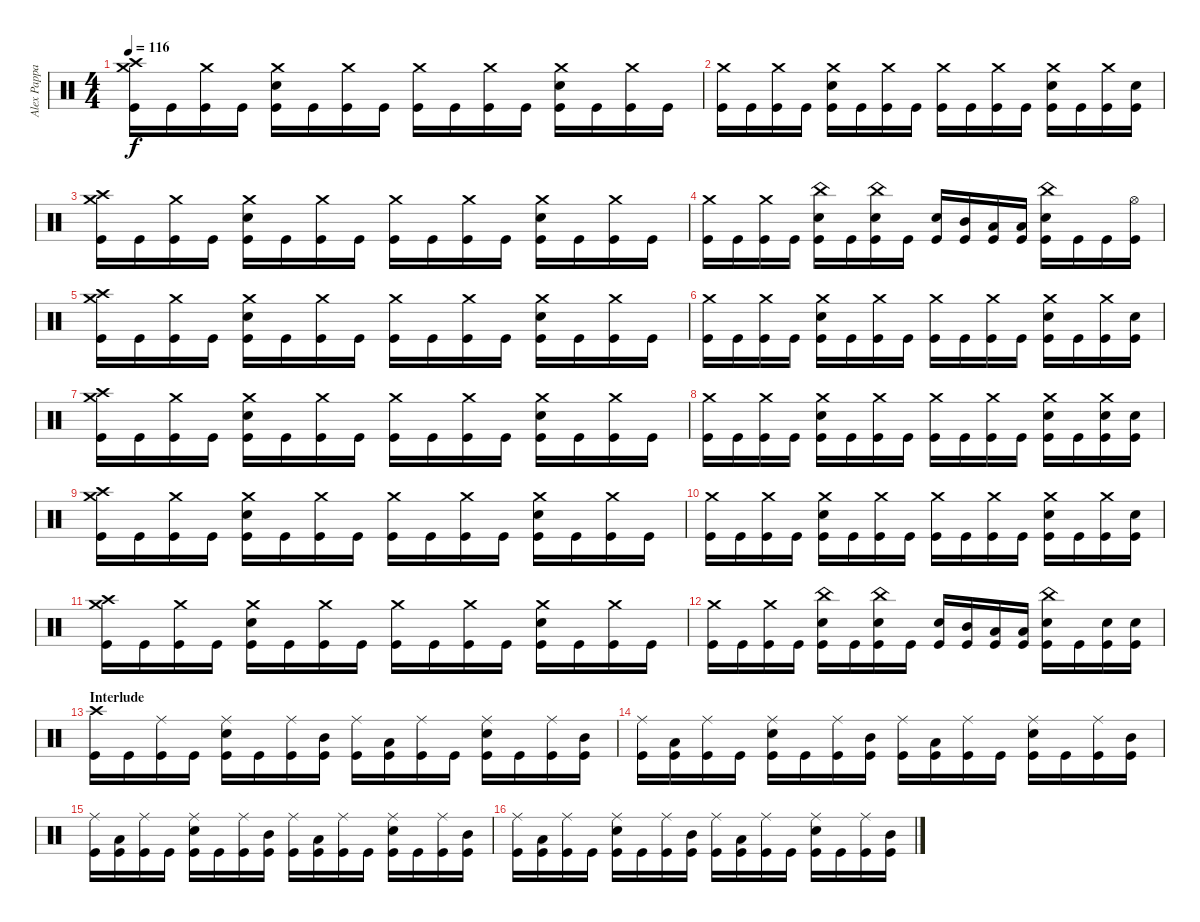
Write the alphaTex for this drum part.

\track ("Alex Pappas" "Alex Pappa") {instrument percussion}
\staff {score}
\articulation defaults
\ts (4 4)
\tempo 116
\clef neutral
\ks c
("Crash medium (hit)" "Crash high (hit)" "Kick (hit)").16{dy f} "Kick (hit)".16 ("Crash medium (hit)" "Kick (hit)").16 "Kick (hit)".16 ("Crash medium (hit)" "Electric Snare (hit)" "Kick (hit)").16 "Kick (hit)".16 ("Crash medium (hit)" "Kick (hit)").16 "Kick (hit)".16 ("Crash medium (hit)" "Kick (hit)").16 "Kick (hit)".16 ("Crash medium (hit)" "Kick (hit)").16 "Kick (hit)".16 ("Crash medium (hit)" "Electric Snare (hit)" "Kick (hit)").16 "Kick (hit)".16 ("Crash medium (hit)" "Kick (hit)").16 "Kick (hit)".16 |
("Crash medium (hit)" "Kick (hit)").16 "Kick (hit)".16 ("Crash medium (hit)" "Kick (hit)").16 "Kick (hit)".16 ("Crash medium (hit)" "Electric Snare (hit)" "Kick (hit)").16 "Kick (hit)".16 ("Crash medium (hit)" "Kick (hit)").16 "Kick (hit)".16 ("Crash medium (hit)" "Kick (hit)").16 "Kick (hit)".16 ("Crash medium (hit)" "Kick (hit)").16 "Kick (hit)".16 ("Crash medium (hit)" "Electric Snare (hit)" "Kick (hit)").16 "Kick (hit)".16 ("Crash medium (hit)" "Kick (hit)").16 ("Electric Snare (hit)" "Kick (hit)").16 |
("Crash medium (hit)" "Crash high (hit)" "Kick (hit)").16 "Kick (hit)".16 ("Crash medium (hit)" "Kick (hit)").16 "Kick (hit)".16 ("Crash medium (hit)" "Electric Snare (hit)" "Kick (hit)").16 "Kick (hit)".16 ("Crash medium (hit)" "Kick (hit)").16 "Kick (hit)".16 ("Crash medium (hit)" "Kick (hit)").16 "Kick (hit)".16 ("Crash medium (hit)" "Kick (hit)").16 "Kick (hit)".16 ("Crash medium (hit)" "Electric Snare (hit)" "Kick (hit)").16 "Kick (hit)".16 ("Crash medium (hit)" "Kick (hit)").16 "Kick (hit)".16 |
("Crash medium (hit)" "Kick (hit)").16 "Kick (hit)".16 ("Crash medium (hit)" "Kick (hit)").16 "Kick (hit)".16 ("China (hit)" "Electric Snare (hit)" "Kick (hit)").16 "Kick (hit)".16 ("China (hit)" "Electric Snare (hit)" "Kick (hit)").16 "Kick (hit)".16 ("Electric Snare (hit)" "Kick (hit)").16 ("Mid Tom (hit)" "Kick (hit)").16 ("Low Tom (hit)" "Kick (hit)").16 ("Low Tom (hit)" "Kick (hit)").16 ("China (hit)" "Electric Snare (hit)" "Kick (hit)").16 "Kick (hit)".16 "Kick (hit)".16 ("Hi-Hat (open)" "Kick (hit)").16 |
("Crash high (hit)" "Crash medium (hit)" "Kick (hit)").16 "Kick (hit)".16 ("Crash medium (hit)" "Kick (hit)").16 "Kick (hit)".16 ("Crash medium (hit)" "Electric Snare (hit)" "Kick (hit)").16 "Kick (hit)".16 ("Crash medium (hit)" "Kick (hit)").16 "Kick (hit)".16 ("Crash medium (hit)" "Kick (hit)").16 "Kick (hit)".16 ("Crash medium (hit)" "Kick (hit)").16 "Kick (hit)".16 ("Crash medium (hit)" "Electric Snare (hit)" "Kick (hit)").16 "Kick (hit)".16 ("Crash medium (hit)" "Kick (hit)").16 "Kick (hit)".16 |
("Crash medium (hit)" "Kick (hit)").16 "Kick (hit)".16 ("Crash medium (hit)" "Kick (hit)").16 "Kick (hit)".16 ("Crash medium (hit)" "Electric Snare (hit)" "Kick (hit)").16 "Kick (hit)".16 ("Crash medium (hit)" "Kick (hit)").16 "Kick (hit)".16 ("Crash medium (hit)" "Kick (hit)").16 "Kick (hit)".16 ("Crash medium (hit)" "Kick (hit)").16 "Kick (hit)".16 ("Crash medium (hit)" "Electric Snare (hit)" "Kick (hit)").16 "Kick (hit)".16 ("Crash medium (hit)" "Kick (hit)").16 ("Electric Snare (hit)" "Kick (hit)").16 |
("Crash high (hit)" "Crash medium (hit)" "Kick (hit)").16 "Kick (hit)".16 ("Crash medium (hit)" "Kick (hit)").16 "Kick (hit)".16 ("Crash medium (hit)" "Electric Snare (hit)" "Kick (hit)").16 "Kick (hit)".16 ("Crash medium (hit)" "Kick (hit)").16 "Kick (hit)".16 ("Crash medium (hit)" "Kick (hit)").16 "Kick (hit)".16 ("Crash medium (hit)" "Kick (hit)").16 "Kick (hit)".16 ("Crash medium (hit)" "Electric Snare (hit)" "Kick (hit)").16 "Kick (hit)".16 ("Crash medium (hit)" "Kick (hit)").16 "Kick (hit)".16 |
("Crash medium (hit)" "Kick (hit)").16 "Kick (hit)".16 ("Crash medium (hit)" "Kick (hit)").16 "Kick (hit)".16 ("Crash medium (hit)" "Electric Snare (hit)" "Kick (hit)").16 "Kick (hit)".16 ("Crash medium (hit)" "Kick (hit)").16 "Kick (hit)".16 ("Crash medium (hit)" "Kick (hit)").16 "Kick (hit)".16 ("Crash medium (hit)" "Kick (hit)").16 "Kick (hit)".16 ("Crash medium (hit)" "Electric Snare (hit)" "Kick (hit)").16 "Kick (hit)".16 ("Crash medium (hit)" "Electric Snare (hit)" "Kick (hit)").16 ("Electric Snare (hit)" "Kick (hit)").16 |
("Crash high (hit)" "Crash medium (hit)" "Kick (hit)").16 "Kick (hit)".16 ("Crash medium (hit)" "Kick (hit)").16 "Kick (hit)".16 ("Crash medium (hit)" "Electric Snare (hit)" "Kick (hit)").16 "Kick (hit)".16 ("Crash medium (hit)" "Kick (hit)").16 "Kick (hit)".16 ("Crash medium (hit)" "Kick (hit)").16 "Kick (hit)".16 ("Crash medium (hit)" "Kick (hit)").16 "Kick (hit)".16 ("Crash medium (hit)" "Electric Snare (hit)" "Kick (hit)").16 "Kick (hit)".16 ("Crash medium (hit)" "Kick (hit)").16 "Kick (hit)".16 |
("Crash medium (hit)" "Kick (hit)").16 "Kick (hit)".16 ("Crash medium (hit)" "Kick (hit)").16 "Kick (hit)".16 ("Crash medium (hit)" "Electric Snare (hit)" "Kick (hit)").16 "Kick (hit)".16 ("Crash medium (hit)" "Kick (hit)").16 "Kick (hit)".16 ("Crash medium (hit)" "Kick (hit)").16 "Kick (hit)".16 ("Crash medium (hit)" "Kick (hit)").16 "Kick (hit)".16 ("Crash medium (hit)" "Electric Snare (hit)" "Kick (hit)").16 "Kick (hit)".16 ("Crash medium (hit)" "Kick (hit)").16 ("Electric Snare (hit)" "Kick (hit)").16 |
("Crash high (hit)" "Crash medium (hit)" "Kick (hit)").16 "Kick (hit)".16 ("Crash medium (hit)" "Kick (hit)").16 "Kick (hit)".16 ("Crash medium (hit)" "Electric Snare (hit)" "Kick (hit)").16 "Kick (hit)".16 ("Crash medium (hit)" "Kick (hit)").16 "Kick (hit)".16 ("Crash medium (hit)" "Kick (hit)").16 "Kick (hit)".16 ("Crash medium (hit)" "Kick (hit)").16 "Kick (hit)".16 ("Crash medium (hit)" "Electric Snare (hit)" "Kick (hit)").16 "Kick (hit)".16 ("Crash medium (hit)" "Kick (hit)").16 "Kick (hit)".16 |
("Crash medium (hit)" "Kick (hit)").16 "Kick (hit)".16 ("Crash medium (hit)" "Kick (hit)").16 "Kick (hit)".16 ("China (hit)" "Electric Snare (hit)" "Kick (hit)").16 "Kick (hit)".16 ("China (hit)" "Electric Snare (hit)" "Kick (hit)").16 "Kick (hit)".16 ("Electric Snare (hit)" "Kick (hit)").16 ("Mid Tom (hit)" "Kick (hit)").16 ("Low Tom (hit)" "Kick (hit)").16 ("Low Tom (hit)" "Kick (hit)").16 ("China (hit)" "Electric Snare (hit)" "Kick (hit)").16 "Kick (hit)".16 ("Electric Snare (hit)" "Kick (hit)").16 ("Electric Snare (hit)" "Kick (hit)").16 |
\section ("" "Interlude")
("Crash high (hit)" "Kick (hit)").16 "Kick (hit)".16 ("Ride (middle)" "Kick (hit)").16 "Kick (hit)".16 ("Ride (middle)" "Electric Snare (hit)" "Kick (hit)").16 "Kick (hit)".16 ("Ride (middle)" "Kick (hit)").16 ("Mid Tom (hit)" "Kick (hit)").16 ("Ride (middle)" "Kick (hit)").16 ("Low Tom (hit)" "Kick (hit)").16 ("Ride (middle)" "Kick (hit)").16 "Kick (hit)".16 ("Ride (middle)" "Electric Snare (hit)" "Kick (hit)").16 "Kick (hit)".16 ("Ride (middle)" "Kick (hit)").16 ("Mid Tom (hit)" "Kick (hit)").16 |
("Ride (middle)" "Kick (hit)").16 ("Low Tom (hit)" "Kick (hit)").16 ("Ride (middle)" "Kick (hit)").16 "Kick (hit)".16 ("Ride (middle)" "Electric Snare (hit)" "Kick (hit)").16 "Kick (hit)".16 ("Ride (middle)" "Kick (hit)").16 ("Mid Tom (hit)" "Kick (hit)").16 ("Ride (middle)" "Kick (hit)").16 ("Low Tom (hit)" "Kick (hit)").16 ("Ride (middle)" "Kick (hit)").16 "Kick (hit)".16 ("Ride (middle)" "Electric Snare (hit)" "Kick (hit)").16 "Kick (hit)".16 ("Ride (middle)" "Kick (hit)").16 ("Mid Tom (hit)" "Kick (hit)").16 |
("Ride (middle)" "Kick (hit)").16 ("Low Tom (hit)" "Kick (hit)").16 ("Ride (middle)" "Kick (hit)").16 "Kick (hit)".16 ("Ride (middle)" "Electric Snare (hit)" "Kick (hit)").16 "Kick (hit)".16 ("Ride (middle)" "Kick (hit)").16 ("Mid Tom (hit)" "Kick (hit)").16 ("Ride (middle)" "Kick (hit)").16 ("Low Tom (hit)" "Kick (hit)").16 ("Ride (middle)" "Kick (hit)").16 "Kick (hit)".16 ("Ride (middle)" "Electric Snare (hit)" "Kick (hit)").16 "Kick (hit)".16 ("Ride (middle)" "Kick (hit)").16 ("Mid Tom (hit)" "Kick (hit)").16 |
("Ride (middle)" "Kick (hit)").16 ("Low Tom (hit)" "Kick (hit)").16 ("Ride (middle)" "Kick (hit)").16 "Kick (hit)".16 ("Ride (middle)" "Electric Snare (hit)" "Kick (hit)").16 "Kick (hit)".16 ("Ride (middle)" "Kick (hit)").16 ("Mid Tom (hit)" "Kick (hit)").16 ("Ride (middle)" "Kick (hit)").16 ("Low Tom (hit)" "Kick (hit)").16 ("Ride (middle)" "Kick (hit)").16 "Kick (hit)".16 ("Ride (middle)" "Electric Snare (hit)" "Kick (hit)").16 "Kick (hit)".16 ("Ride (middle)" "Kick (hit)").16 ("Mid Tom (hit)" "Kick (hit)").16
